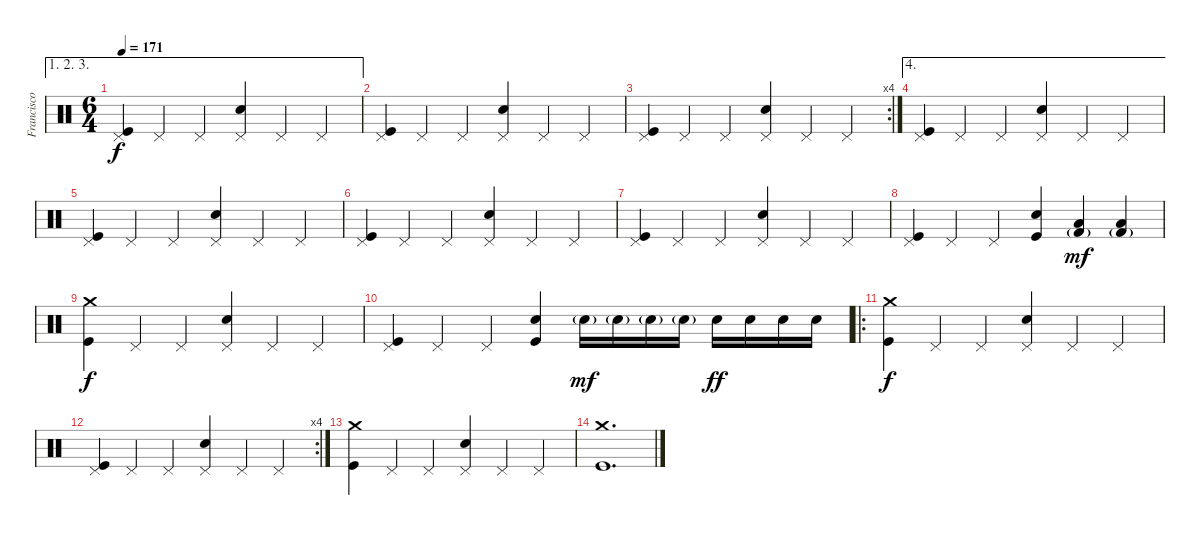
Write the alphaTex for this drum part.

\track ("Francisco González" "Francisco ") {instrument percussion}
\staff {score}
\articulation defaults
\ae (1 2 3)
\ts (6 4)
\tempo 171
\clef neutral
\ks c
("Pedal Hi-Hat (hit)" "Kick (hit)").4{dy f} "Pedal Hi-Hat (hit)".4 "Pedal Hi-Hat (hit)".4 ("Pedal Hi-Hat (hit)" "Electric Snare (hit)").4 "Pedal Hi-Hat (hit)".4 "Pedal Hi-Hat (hit)".4 |
("Pedal Hi-Hat (hit)" "Kick (hit)").4 "Pedal Hi-Hat (hit)".4 "Pedal Hi-Hat (hit)".4 ("Pedal Hi-Hat (hit)" "Electric Snare (hit)").4 "Pedal Hi-Hat (hit)".4 "Pedal Hi-Hat (hit)".4 |
\rc 4
("Pedal Hi-Hat (hit)" "Kick (hit)").4 "Pedal Hi-Hat (hit)".4 "Pedal Hi-Hat (hit)".4 ("Pedal Hi-Hat (hit)" "Electric Snare (hit)").4 "Pedal Hi-Hat (hit)".4 "Pedal Hi-Hat (hit)".4 |
\ae 4
("Pedal Hi-Hat (hit)" "Kick (hit)").4 "Pedal Hi-Hat (hit)".4 "Pedal Hi-Hat (hit)".4 ("Pedal Hi-Hat (hit)" "Electric Snare (hit)").4 "Pedal Hi-Hat (hit)".4 "Pedal Hi-Hat (hit)".4 |
("Pedal Hi-Hat (hit)" "Kick (hit)").4 "Pedal Hi-Hat (hit)".4 "Pedal Hi-Hat (hit)".4 ("Pedal Hi-Hat (hit)" "Electric Snare (hit)").4 "Pedal Hi-Hat (hit)".4 "Pedal Hi-Hat (hit)".4 |
("Pedal Hi-Hat (hit)" "Kick (hit)").4 "Pedal Hi-Hat (hit)".4 "Pedal Hi-Hat (hit)".4 ("Pedal Hi-Hat (hit)" "Electric Snare (hit)").4 "Pedal Hi-Hat (hit)".4 "Pedal Hi-Hat (hit)".4 |
("Pedal Hi-Hat (hit)" "Kick (hit)").4 "Pedal Hi-Hat (hit)".4 "Pedal Hi-Hat (hit)".4 ("Pedal Hi-Hat (hit)" "Electric Snare (hit)").4 "Pedal Hi-Hat (hit)".4 "Pedal Hi-Hat (hit)".4 |
("Pedal Hi-Hat (hit)" "Kick (hit)").4 "Pedal Hi-Hat (hit)".4 "Pedal Hi-Hat (hit)".4 ("Electric Snare (hit)" "Kick (hit)").4 ("Low Floor Tom (hit)" "Kick (hit) 2"{g}).4{dy mf} ("Low Floor Tom (hit)" "Kick (hit) 2"{g}).4 |
("Crash medium (hit)" "Kick (hit)").4{dy f} "Pedal Hi-Hat (hit)".4 "Pedal Hi-Hat (hit)".4 ("Pedal Hi-Hat (hit)" "Electric Snare (hit)").4 "Pedal Hi-Hat (hit)".4 "Pedal Hi-Hat (hit)".4 |
("Pedal Hi-Hat (hit)" "Kick (hit)").4 "Pedal Hi-Hat (hit)".4 "Pedal Hi-Hat (hit)".4 ("Electric Snare (hit)" "Kick (hit)").4 "Electric Snare (hit)"{g}.16{dy mf} "Electric Snare (hit)"{g}.16 "Electric Snare (hit)"{g}.16 "Electric Snare (hit)"{g}.16 "Electric Snare (hit)".16{dy ff} "Electric Snare (hit)".16 "Electric Snare (hit)".16 "Electric Snare (hit)".16 |
\ro
("Crash medium (hit)" "Kick (hit)").4{dy f} "Pedal Hi-Hat (hit)".4 "Pedal Hi-Hat (hit)".4 ("Pedal Hi-Hat (hit)" "Electric Snare (hit)").4 "Pedal Hi-Hat (hit)".4 "Pedal Hi-Hat (hit)".4 |
\rc 4
("Pedal Hi-Hat (hit)" "Kick (hit)").4 "Pedal Hi-Hat (hit)".4 "Pedal Hi-Hat (hit)".4 ("Pedal Hi-Hat (hit)" "Electric Snare (hit)").4 "Pedal Hi-Hat (hit)".4 "Pedal Hi-Hat (hit)".4 |
("Crash medium (hit)" "Kick (hit)").4 "Pedal Hi-Hat (hit)".4 "Pedal Hi-Hat (hit)".4 ("Pedal Hi-Hat (hit)" "Electric Snare (hit)").4 "Pedal Hi-Hat (hit)".4 "Pedal Hi-Hat (hit)".4 |
("Crash medium (hit)" "Kick (hit)").1{d}
